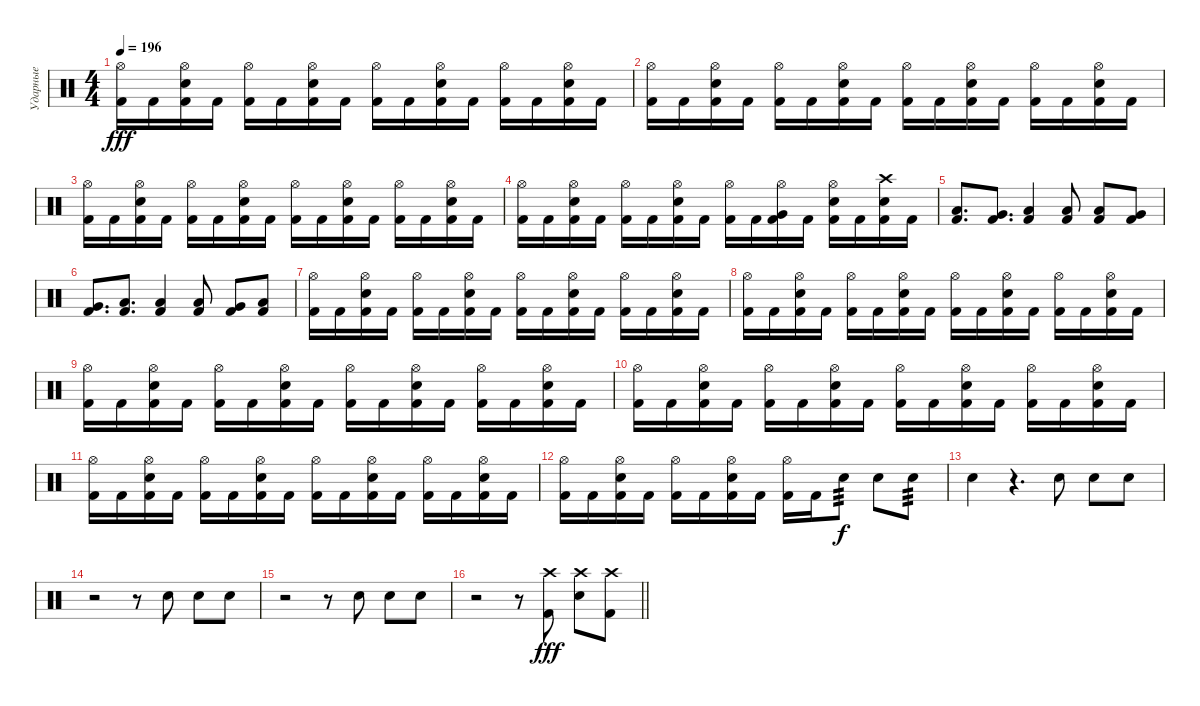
\track ("Ударные" "Ударные") {instrument percussion}
\staff {score}
\articulation defaults
\ts (4 4)
\tempo 196
\clef neutral
\ks c
("Kick (hit) 2" "Hi-Hat (open)").16{dy fff} "Kick (hit) 2".16 ("Kick (hit) 2" "Snare (hit) 2" "Hi-Hat (open)").16 "Kick (hit) 2".16 ("Kick (hit) 2" "Hi-Hat (open)").16 "Kick (hit) 2".16 ("Kick (hit) 2" "Snare (hit) 2" "Hi-Hat (open)").16 "Kick (hit) 2".16 ("Kick (hit) 2" "Hi-Hat (open)").16 "Kick (hit) 2".16 ("Kick (hit) 2" "Snare (hit) 2" "Hi-Hat (open)").16 "Kick (hit) 2".16 ("Kick (hit) 2" "Hi-Hat (open)").16 "Kick (hit) 2".16 ("Kick (hit) 2" "Snare (hit) 2" "Hi-Hat (open)").16 "Kick (hit) 2".16 |
("Kick (hit) 2" "Hi-Hat (open)").16 "Kick (hit) 2".16 ("Kick (hit) 2" "Snare (hit) 2" "Hi-Hat (open)").16 "Kick (hit) 2".16 ("Kick (hit) 2" "Hi-Hat (open)").16 "Kick (hit) 2".16 ("Kick (hit) 2" "Snare (hit) 2" "Hi-Hat (open)").16 "Kick (hit) 2".16 ("Kick (hit) 2" "Hi-Hat (open)").16 "Kick (hit) 2".16 ("Kick (hit) 2" "Snare (hit) 2" "Hi-Hat (open)").16 "Kick (hit) 2".16 ("Kick (hit) 2" "Hi-Hat (open)").16 "Kick (hit) 2".16 ("Kick (hit) 2" "Snare (hit) 2" "Hi-Hat (open)").16 "Kick (hit) 2".16 |
("Kick (hit) 2" "Hi-Hat (open)").16 "Kick (hit) 2".16 ("Kick (hit) 2" "Snare (hit) 2" "Hi-Hat (open)").16 "Kick (hit) 2".16 ("Kick (hit) 2" "Hi-Hat (open)").16 "Kick (hit) 2".16 ("Kick (hit) 2" "Snare (hit) 2" "Hi-Hat (open)").16 "Kick (hit) 2".16 ("Kick (hit) 2" "Hi-Hat (open)").16 "Kick (hit) 2".16 ("Kick (hit) 2" "Snare (hit) 2" "Hi-Hat (open)").16 "Kick (hit) 2".16 ("Kick (hit) 2" "Hi-Hat (open)").16 "Kick (hit) 2".16 ("Kick (hit) 2" "Snare (hit) 2" "Hi-Hat (open)").16 "Kick (hit) 2".16 |
("Kick (hit) 2" "Hi-Hat (open)").16 "Kick (hit) 2".16 ("Kick (hit) 2" "Snare (hit) 2" "Hi-Hat (open)").16 "Kick (hit) 2".16 ("Kick (hit) 2" "Hi-Hat (open)").16 "Kick (hit) 2".16 ("Kick (hit) 2" "Snare (hit) 2" "Hi-Hat (open)").16 "Kick (hit) 2".16 ("Kick (hit) 2" "Hi-Hat (open)").16 "Kick (hit) 2".16 ("Kick (hit) 2" "Very Low Tom (hit)" "Hi-Hat (open)").16 "Kick (hit) 2".16 ("Kick (hit) 2" "Electric Snare (hit)" "Hi-Hat (open)").16 "Kick (hit) 2".16 ("Kick (hit) 2" "Snare (hit) 2" "Crash high (hit)").16 "Kick (hit) 2".16 |
("Kick (hit) 2" "Low Tom (hit)").8{d} ("Kick (hit) 2" "Very Low Tom (hit)").8{d} ("Kick (hit) 2" "Low Floor Tom (hit)").4 ("Kick (hit) 2" "Low Tom (hit)").8 ("Kick (hit) 2" "Low Tom (hit)").8 ("Kick (hit) 2" "Very Low Tom (hit)").8 |
("Kick (hit) 2" "Very Low Tom (hit)").8{d} ("Kick (hit) 2" "Low Tom (hit)").8{d} ("Kick (hit) 2" "Low Tom (hit)").4 ("Kick (hit) 2" "Low Tom (hit)").8 ("Kick (hit) 2" "Very Low Tom (hit)").8 ("Kick (hit) 2" "Low Floor Tom (hit)").8 |
("Kick (hit) 2" "Hi-Hat (open)").16 "Kick (hit) 2".16 ("Kick (hit) 2" "Snare (hit) 2" "Hi-Hat (open)").16 "Kick (hit) 2".16 ("Kick (hit) 2" "Hi-Hat (open)").16 "Kick (hit) 2".16 ("Kick (hit) 2" "Snare (hit) 2" "Hi-Hat (open)").16 "Kick (hit) 2".16 ("Kick (hit) 2" "Hi-Hat (open)").16 "Kick (hit) 2".16 ("Kick (hit) 2" "Snare (hit) 2" "Hi-Hat (open)").16 "Kick (hit) 2".16 ("Kick (hit) 2" "Hi-Hat (open)").16 "Kick (hit) 2".16 ("Kick (hit) 2" "Snare (hit) 2" "Hi-Hat (open)").16 "Kick (hit) 2".16 |
("Kick (hit) 2" "Hi-Hat (open)").16 "Kick (hit) 2".16 ("Kick (hit) 2" "Snare (hit) 2" "Hi-Hat (open)").16 "Kick (hit) 2".16 ("Kick (hit) 2" "Hi-Hat (open)").16 "Kick (hit) 2".16 ("Kick (hit) 2" "Snare (hit) 2" "Hi-Hat (open)").16 "Kick (hit) 2".16 ("Kick (hit) 2" "Hi-Hat (open)").16 "Kick (hit) 2".16 ("Kick (hit) 2" "Snare (hit) 2" "Hi-Hat (open)").16 "Kick (hit) 2".16 ("Kick (hit) 2" "Hi-Hat (open)").16 "Kick (hit) 2".16 ("Kick (hit) 2" "Snare (hit) 2" "Hi-Hat (open)").16 "Kick (hit) 2".16 |
("Kick (hit) 2" "Hi-Hat (open)").16 "Kick (hit) 2".16 ("Kick (hit) 2" "Snare (hit) 2" "Hi-Hat (open)").16 "Kick (hit) 2".16 ("Kick (hit) 2" "Hi-Hat (open)").16 "Kick (hit) 2".16 ("Kick (hit) 2" "Snare (hit) 2" "Hi-Hat (open)").16 "Kick (hit) 2".16 ("Kick (hit) 2" "Hi-Hat (open)").16 "Kick (hit) 2".16 ("Kick (hit) 2" "Snare (hit) 2" "Hi-Hat (open)").16 "Kick (hit) 2".16 ("Kick (hit) 2" "Hi-Hat (open)").16 "Kick (hit) 2".16 ("Kick (hit) 2" "Snare (hit) 2" "Hi-Hat (open)").16 "Kick (hit) 2".16 |
("Kick (hit) 2" "Hi-Hat (open)").16 "Kick (hit) 2".16 ("Kick (hit) 2" "Snare (hit) 2" "Hi-Hat (open)").16 "Kick (hit) 2".16 ("Kick (hit) 2" "Hi-Hat (open)").16 "Kick (hit) 2".16 ("Kick (hit) 2" "Snare (hit) 2" "Hi-Hat (open)").16 "Kick (hit) 2".16 ("Kick (hit) 2" "Hi-Hat (open)").16 "Kick (hit) 2".16 ("Kick (hit) 2" "Snare (hit) 2" "Hi-Hat (open)").16 "Kick (hit) 2".16 ("Kick (hit) 2" "Hi-Hat (open)").16 "Kick (hit) 2".16 ("Kick (hit) 2" "Snare (hit) 2" "Hi-Hat (open)").16 "Kick (hit) 2".16 |
("Kick (hit) 2" "Hi-Hat (open)").16 "Kick (hit) 2".16 ("Kick (hit) 2" "Snare (hit) 2" "Hi-Hat (open)").16 "Kick (hit) 2".16 ("Kick (hit) 2" "Hi-Hat (open)").16 "Kick (hit) 2".16 ("Kick (hit) 2" "Snare (hit) 2" "Hi-Hat (open)").16 "Kick (hit) 2".16 ("Kick (hit) 2" "Hi-Hat (open)").16 "Kick (hit) 2".16 ("Kick (hit) 2" "Snare (hit) 2" "Hi-Hat (open)").16 "Kick (hit) 2".16 ("Kick (hit) 2" "Hi-Hat (open)").16 "Kick (hit) 2".16 ("Kick (hit) 2" "Snare (hit) 2" "Hi-Hat (open)").16 "Kick (hit) 2".16 |
("Kick (hit) 2" "Hi-Hat (open)").16 "Kick (hit) 2".16 ("Kick (hit) 2" "Snare (hit) 2" "Hi-Hat (open)").16 "Kick (hit) 2".16 ("Kick (hit) 2" "Hi-Hat (open)").16 "Kick (hit) 2".16 ("Kick (hit) 2" "Snare (hit) 2" "Hi-Hat (open)").16 "Kick (hit) 2".16 ("Kick (hit) 2" "Hi-Hat (open)").16 "Kick (hit) 2".16 "Snare (hit) 2".8{tp 3 dy f} "Snare (hit) 2".8 "Snare (hit) 2".8{tp 3} |
"Snare (hit) 2".4 r.4{d} "Snare (hit) 2".8 "Snare (hit) 2".8 "Snare (hit) 2".8 |
r.2 r.8 "Snare (hit) 2".8 "Snare (hit) 2".8 "Snare (hit) 2".8 |
r.2 r.8 "Snare (hit) 2".8 "Snare (hit) 2".8 "Snare (hit) 2".8 |
\barLineRight lightlight
r.2 r.8 ("Kick (hit) 2" "Crash high (hit)").8{dy fff} ("Snare (hit) 2" "Crash high (hit)").8 ("Kick (hit) 2" "Crash high (hit)").8
